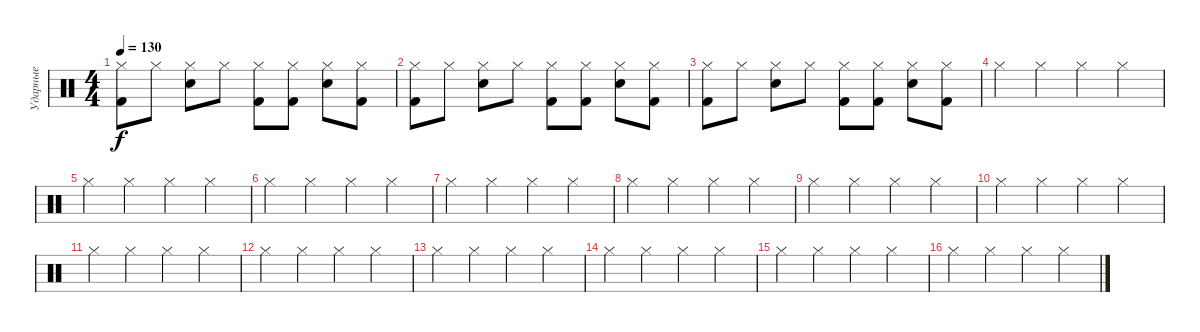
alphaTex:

\track ("Ударные" "Ударные") {instrument percussion}
\staff {score}
\articulation defaults
\ts (4 4)
\tempo 130
\clef neutral
\ks c
("Hi-Hat (closed)" "Kick (hit) 2").8{dy f} "Hi-Hat (closed)".8 ("Hi-Hat (closed)" "Snare (hit) 2").8 "Hi-Hat (closed)".8 ("Hi-Hat (closed)" "Kick (hit) 2").8 ("Hi-Hat (closed)" "Kick (hit) 2").8 ("Hi-Hat (closed)" "Snare (hit) 2").8 ("Hi-Hat (closed)" "Kick (hit) 2").8 |
("Hi-Hat (closed)" "Kick (hit) 2").8 "Hi-Hat (closed)".8 ("Hi-Hat (closed)" "Snare (hit) 2").8 "Hi-Hat (closed)".8 ("Hi-Hat (closed)" "Kick (hit) 2").8 ("Hi-Hat (closed)" "Kick (hit) 2").8 ("Hi-Hat (closed)" "Snare (hit) 2").8 ("Hi-Hat (closed)" "Kick (hit) 2").8 |
("Hi-Hat (closed)" "Kick (hit) 2").8 "Hi-Hat (closed)".8 ("Hi-Hat (closed)" "Snare (hit) 2").8 "Hi-Hat (closed)".8 ("Hi-Hat (closed)" "Kick (hit) 2").8 ("Hi-Hat (closed)" "Kick (hit) 2").8 ("Hi-Hat (closed)" "Snare (hit) 2").8 ("Hi-Hat (closed)" "Kick (hit) 2").8 |
"Hi-Hat (closed)".4 "Hi-Hat (closed)".4 "Hi-Hat (closed)".4 "Hi-Hat (closed)".4 |
"Hi-Hat (closed)".4 "Hi-Hat (closed)".4 "Hi-Hat (closed)".4 "Hi-Hat (closed)".4 |
"Hi-Hat (closed)".4 "Hi-Hat (closed)".4 "Hi-Hat (closed)".4 "Hi-Hat (closed)".4 |
"Hi-Hat (closed)".4 "Hi-Hat (closed)".4 "Hi-Hat (closed)".4 "Hi-Hat (closed)".4 |
"Hi-Hat (closed)".4 "Hi-Hat (closed)".4 "Hi-Hat (closed)".4 "Hi-Hat (closed)".4 |
"Hi-Hat (closed)".4 "Hi-Hat (closed)".4 "Hi-Hat (closed)".4 "Hi-Hat (closed)".4 |
"Hi-Hat (closed)".4 "Hi-Hat (closed)".4 "Hi-Hat (closed)".4 "Hi-Hat (closed)".4 |
"Hi-Hat (closed)".4 "Hi-Hat (closed)".4 "Hi-Hat (closed)".4 "Hi-Hat (closed)".4 |
"Hi-Hat (closed)".4 "Hi-Hat (closed)".4 "Hi-Hat (closed)".4 "Hi-Hat (closed)".4 |
"Hi-Hat (closed)".4 "Hi-Hat (closed)".4 "Hi-Hat (closed)".4 "Hi-Hat (closed)".4 |
"Hi-Hat (closed)".4 "Hi-Hat (closed)".4 "Hi-Hat (closed)".4 "Hi-Hat (closed)".4 |
"Hi-Hat (closed)".4 "Hi-Hat (closed)".4 "Hi-Hat (closed)".4 "Hi-Hat (closed)".4 |
"Hi-Hat (closed)".4 "Hi-Hat (closed)".4 "Hi-Hat (closed)".4 "Hi-Hat (closed)".4
